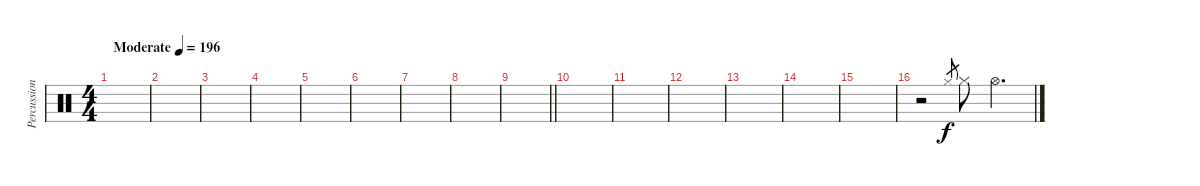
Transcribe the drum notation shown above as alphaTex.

\track ("Percussion" "Percussion") {instrument percussion}
\staff {score}
\articulation defaults
\ts (4 4)
\tempo (196 "Moderate")
\clef neutral
\ks c
|
|
|
|
|
|
|
|
\barLineRight lightlight
|
|
|
|
|
|
|
r.2 "Hi-Hat (closed)".8{gr} "Hi-Hat (closed)".8 "Hi-Hat (open)".4{d}
